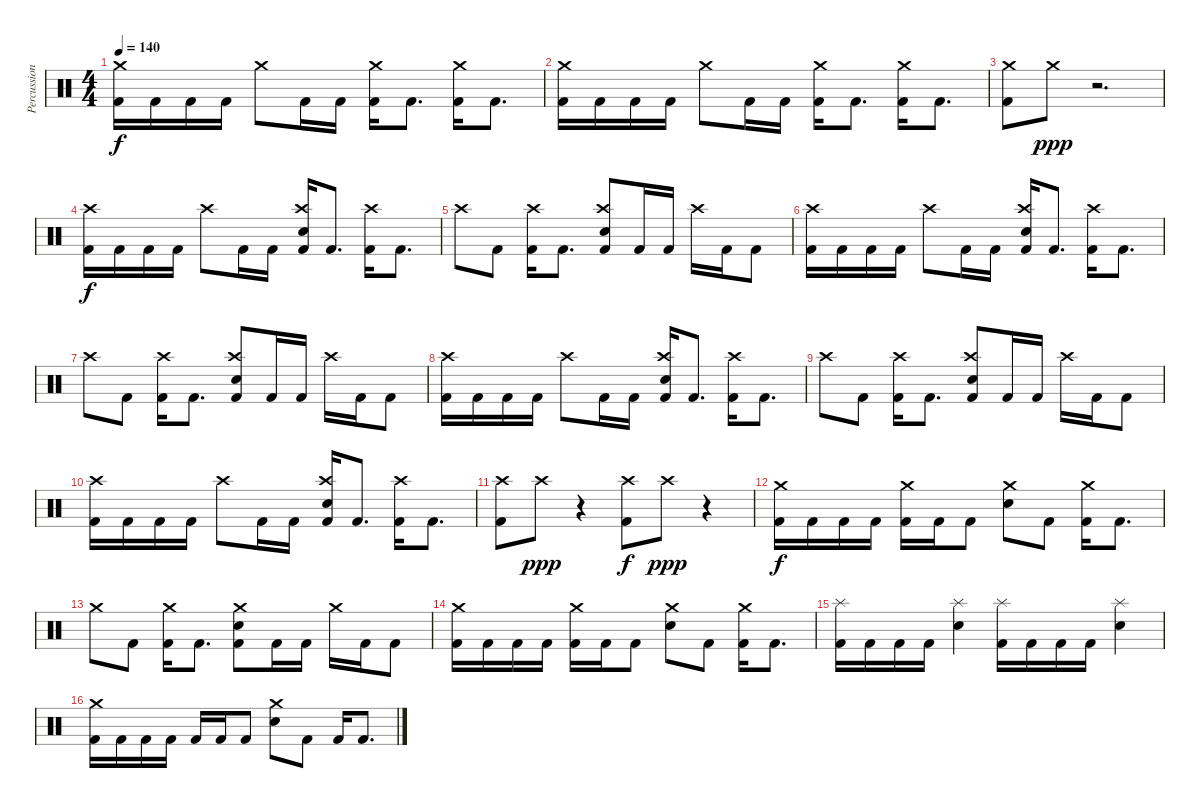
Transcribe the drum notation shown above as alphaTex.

\track ("Percussion" "Percussion") {instrument percussion}
\staff {score}
\articulation defaults
\ts (4 4)
\tempo 140
\clef neutral
\ks c
("Crash medium (hit)" "Kick (hit) 2").16{dy f} "Kick (hit) 2".16 "Kick (hit) 2".16 "Kick (hit) 2".16 "Crash medium (hit)".8 "Kick (hit) 2".16 "Kick (hit) 2".16 ("Crash medium (hit)" "Kick (hit) 2").16 "Kick (hit) 2".8{d} ("Crash medium (hit)" "Kick (hit) 2").16 "Kick (hit) 2".8{d} |
("Crash medium (hit)" "Kick (hit) 2").16 "Kick (hit) 2".16 "Kick (hit) 2".16 "Kick (hit) 2".16 "Crash medium (hit)".8 "Kick (hit) 2".16 "Kick (hit) 2".16 ("Crash medium (hit)" "Kick (hit) 2").16 "Kick (hit) 2".8{d} ("Crash medium (hit)" "Kick (hit) 2").16 "Kick (hit) 2".8{d} |
("Crash medium (hit)" "Kick (hit) 2").8 "Crash medium (hit)".8{dy ppp} r.2{d} |
("Crash high (hit)" "Kick (hit) 2").16{dy f} "Kick (hit) 2".16 "Kick (hit) 2".16 "Kick (hit) 2".16 "Crash high (hit)".8 "Kick (hit) 2".16 "Kick (hit) 2".16 ("Crash high (hit)" "Electric Snare (hit)" "Kick (hit) 2").16 "Kick (hit) 2".8{d} ("Crash high (hit)" "Kick (hit) 2").16 "Kick (hit) 2".8{d} |
"Crash high (hit)".8 "Kick (hit) 2".8 ("Crash high (hit)" "Kick (hit) 2").16 "Kick (hit) 2".8{d} ("Crash high (hit)" "Electric Snare (hit)" "Kick (hit) 2").8 "Kick (hit) 2".16 "Kick (hit) 2".16 "Crash high (hit)".16 "Kick (hit) 2".16 "Kick (hit) 2".8 |
("Crash high (hit)" "Kick (hit) 2").16 "Kick (hit) 2".16 "Kick (hit) 2".16 "Kick (hit) 2".16 "Crash high (hit)".8 "Kick (hit) 2".16 "Kick (hit) 2".16 ("Crash high (hit)" "Electric Snare (hit)" "Kick (hit) 2").16 "Kick (hit) 2".8{d} ("Crash high (hit)" "Kick (hit) 2").16 "Kick (hit) 2".8{d} |
"Crash high (hit)".8 "Kick (hit) 2".8 ("Crash high (hit)" "Kick (hit) 2").16 "Kick (hit) 2".8{d} ("Crash high (hit)" "Electric Snare (hit)" "Kick (hit) 2").8 "Kick (hit) 2".16 "Kick (hit) 2".16 "Crash high (hit)".16 "Kick (hit) 2".16 "Kick (hit) 2".8 |
("Crash high (hit)" "Kick (hit) 2").16 "Kick (hit) 2".16 "Kick (hit) 2".16 "Kick (hit) 2".16 "Crash high (hit)".8 "Kick (hit) 2".16 "Kick (hit) 2".16 ("Crash high (hit)" "Electric Snare (hit)" "Kick (hit) 2").16 "Kick (hit) 2".8{d} ("Crash high (hit)" "Kick (hit) 2").16 "Kick (hit) 2".8{d} |
"Crash high (hit)".8 "Kick (hit) 2".8 ("Crash high (hit)" "Kick (hit) 2").16 "Kick (hit) 2".8{d} ("Crash high (hit)" "Electric Snare (hit)" "Kick (hit) 2").8 "Kick (hit) 2".16 "Kick (hit) 2".16 "Crash high (hit)".16 "Kick (hit) 2".16 "Kick (hit) 2".8 |
("Crash high (hit)" "Kick (hit) 2").16 "Kick (hit) 2".16 "Kick (hit) 2".16 "Kick (hit) 2".16 "Crash high (hit)".8 "Kick (hit) 2".16 "Kick (hit) 2".16 ("Crash high (hit)" "Electric Snare (hit)" "Kick (hit) 2").16 "Kick (hit) 2".8{d} ("Crash high (hit)" "Kick (hit) 2").16 "Kick (hit) 2".8{d} |
("Crash high (hit)" "Kick (hit) 2").8 "Crash high (hit)".8{dy ppp} r.4 ("Crash high (hit)" "Kick (hit) 2").8{dy f} "Crash high (hit)".8{dy ppp} r.4 |
("Crash medium (hit)" "Kick (hit) 2").16{dy f} "Kick (hit) 2".16 "Kick (hit) 2".16 "Kick (hit) 2".16 ("Crash medium (hit)" "Kick (hit) 2").16 "Kick (hit) 2".16 "Kick (hit) 2".8 ("Crash medium (hit)" "Electric Snare (hit)").8 "Kick (hit) 2".8 ("Crash medium (hit)" "Kick (hit) 2").16 "Kick (hit) 2".8{d} |
"Crash medium (hit)".8 "Kick (hit) 2".8 ("Crash medium (hit)" "Kick (hit) 2").16 "Kick (hit) 2".8{d} ("Crash medium (hit)" "Electric Snare (hit)" "Kick (hit) 2").8 "Kick (hit) 2".16 "Kick (hit) 2".16 "Crash medium (hit)".16 "Kick (hit) 2".16 "Kick (hit) 2".8 |
("Crash medium (hit)" "Kick (hit) 2").16 "Kick (hit) 2".16 "Kick (hit) 2".16 "Kick (hit) 2".16 ("Crash medium (hit)" "Kick (hit) 2").16 "Kick (hit) 2".16 "Kick (hit) 2".8 ("Crash medium (hit)" "Electric Snare (hit)").8 "Kick (hit) 2".8 ("Crash medium (hit)" "Kick (hit) 2").16 "Kick (hit) 2".8{d} |
("Splash (hit)" "Kick (hit) 2").16 "Kick (hit) 2".16 "Kick (hit) 2".16 "Kick (hit) 2".16 ("Splash (hit)" "Electric Snare (hit)").4 ("Splash (hit)" "Kick (hit) 2").16 "Kick (hit) 2".16 "Kick (hit) 2".16 "Kick (hit) 2".16 ("Splash (hit)" "Electric Snare (hit)").4 |
("Crash medium (hit)" "Kick (hit) 2").16 "Kick (hit) 2".16 "Kick (hit) 2".16 "Kick (hit) 2".16 "Kick (hit) 2".16 "Kick (hit) 2".16 "Kick (hit) 2".8 ("Crash medium (hit)" "Electric Snare (hit)").8 "Kick (hit) 2".8 "Kick (hit) 2".16 "Kick (hit) 2".8{d}
